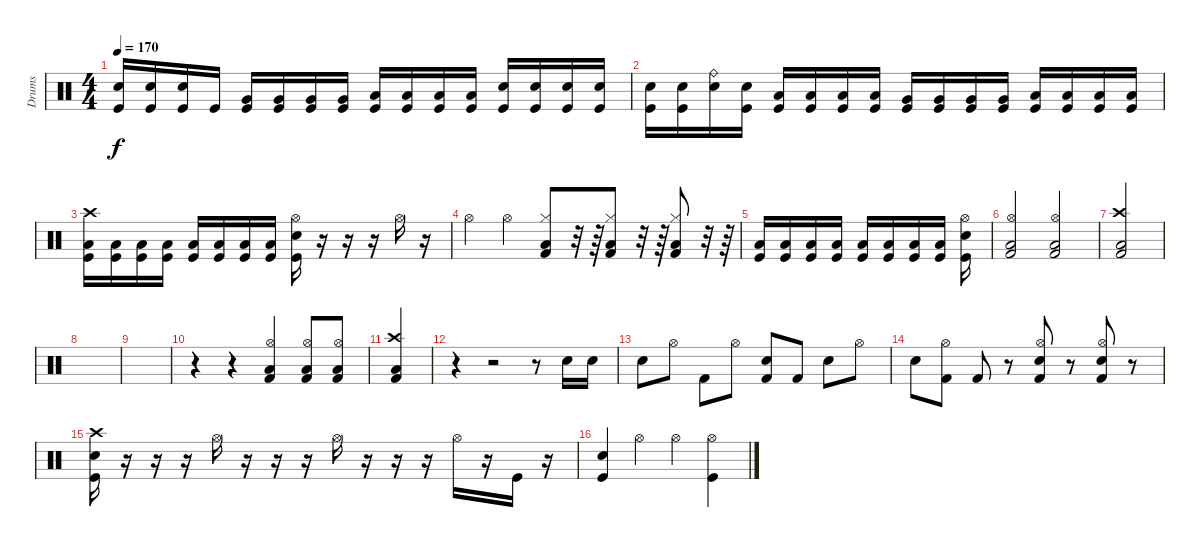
\track ("Drums" "Drums") {instrument percussion}
\staff {score}
\articulation defaults
\ts (4 4)
\tempo 170
\clef neutral
\ks c
("Electric Snare (hit)" "Kick (hit)").16{dy f} ("Electric Snare (hit)" "Kick (hit)").16 ("Electric Snare (hit)" "Kick (hit)").16 "Kick (hit)".16 ("Very Low Tom (hit)" "Kick (hit)").16 ("Very Low Tom (hit)" "Kick (hit)").16 ("Very Low Tom (hit)" "Kick (hit)").16 ("Very Low Tom (hit)" "Kick (hit)").16 ("Low Tom (hit)" "Kick (hit)").16 ("Low Tom (hit)" "Kick (hit)").16 ("Low Tom (hit)" "Kick (hit)").16 ("Low Tom (hit)" "Kick (hit)").16 ("Electric Snare (hit)" "Kick (hit)").16 ("Electric Snare (hit)" "Kick (hit)").16 ("Electric Snare (hit)" "Kick (hit)").16 ("Electric Snare (hit)" "Kick (hit)").16 |
("Electric Snare (hit)" "Kick (hit)").16 ("Electric Snare (hit)" "Kick (hit)").16 ("Electric Snare (hit)" "Ride (bell)").16 ("Electric Snare (hit)" "Kick (hit)").16 ("Low Tom (hit)" "Kick (hit)").16 ("Low Tom (hit)" "Kick (hit)").16 ("Low Tom (hit)" "Kick (hit)").16 ("Low Tom (hit)" "Kick (hit)").16 ("Very Low Tom (hit)" "Kick (hit)").16 ("Very Low Tom (hit)" "Kick (hit)").16 ("Very Low Tom (hit)" "Kick (hit)").16 ("Very Low Tom (hit)" "Kick (hit)").16 ("Low Floor Tom (hit)" "Kick (hit)").16 ("Low Floor Tom (hit)" "Kick (hit)").16 ("Low Floor Tom (hit)" "Kick (hit)").16 ("Low Floor Tom (hit)" "Kick (hit)").16 |
("Crash high (hit)" "Low Floor Tom (hit)" "Kick (hit)").16 ("Low Floor Tom (hit)" "Kick (hit)").16 ("Low Floor Tom (hit)" "Kick (hit)").16 ("Low Floor Tom (hit)" "Kick (hit)").16 ("Low Floor Tom (hit)" "Kick (hit)").16 ("Low Floor Tom (hit)" "Kick (hit)").16 ("Low Floor Tom (hit)" "Kick (hit)").16 ("Low Floor Tom (hit)" "Kick (hit)").16 ("Hi-Hat (open)" "Electric Snare (hit)" "Kick (hit)").16 r.16 r.16 r.16 "Hi-Hat (open)".16 r.16 |
"Hi-Hat (open)".4 "Hi-Hat (open)".4 ("Hi-Hat (closed)" "Low Floor Tom (hit)" "Kick (hit) 2").8 r.32 r.64 ("Hi-Hat (closed)" "Low Floor Tom (hit)" "Kick (hit) 2").8 r.32 r.64 ("Hi-Hat (closed)" "Low Floor Tom (hit)" "Kick (hit) 2").8 r.32 r.64 |
("Low Floor Tom (hit)" "Kick (hit)").16 ("Low Floor Tom (hit)" "Kick (hit)").16 ("Low Floor Tom (hit)" "Kick (hit)").16 ("Low Floor Tom (hit)" "Kick (hit)").16 ("Low Floor Tom (hit)" "Kick (hit)").16 ("Low Floor Tom (hit)" "Kick (hit)").16 ("Low Floor Tom (hit)" "Kick (hit)").16 ("Low Floor Tom (hit)" "Kick (hit)").16 ("Hi-Hat (open)" "Electric Snare (hit)" "Kick (hit)").16 |
("Hi-Hat (open)" "Low Floor Tom (hit)" "Kick (hit) 2").2 ("Hi-Hat (open)" "Low Floor Tom (hit)" "Kick (hit) 2").2 |
("Crash high (hit)" "Low Floor Tom (hit)" "Kick (hit) 2").2 |
|
|
r.4 r.4 ("Hi-Hat (open)" "Low Floor Tom (hit)" "Kick (hit) 2").4 ("Hi-Hat (open)" "Low Floor Tom (hit)" "Kick (hit) 2").8 ("Hi-Hat (open)" "Low Floor Tom (hit)" "Kick (hit) 2").8 |
("Crash high (hit)" "Low Floor Tom (hit)" "Kick (hit) 2").4 |
r.4 r.2 r.8 "Electric Snare (hit)".16 "Electric Snare (hit)".16 |
"Electric Snare (hit)".8 "Hi-Hat (open)".8 "Kick (hit) 2".8 "Hi-Hat (open)".8 ("Electric Snare (hit)" "Kick (hit) 2").8 "Kick (hit) 2".8 "Electric Snare (hit)".8 "Hi-Hat (open)".8 |
"Electric Snare (hit)".8 ("Hi-Hat (open)" "Kick (hit) 2").8 "Kick (hit) 2".8 r.8 ("Hi-Hat (open)" "Electric Snare (hit)" "Kick (hit) 2").8 r.8 ("Hi-Hat (open)" "Electric Snare (hit)" "Kick (hit) 2").8 r.8 |
("Crash high (hit)" "Electric Snare (hit)" "Kick (hit)").16 r.16 r.16 r.16 "Hi-Hat (open)".16 r.16 r.16 r.16 "Hi-Hat (open)".16 r.16 r.16 r.16 "Hi-Hat (open)".16 r.16 "Kick (hit)".16 r.16 |
("Electric Snare (hit)" "Kick (hit)").4 "Hi-Hat (open)".4 "Hi-Hat (open)".4 ("Hi-Hat (open)" "Kick (hit)").4
